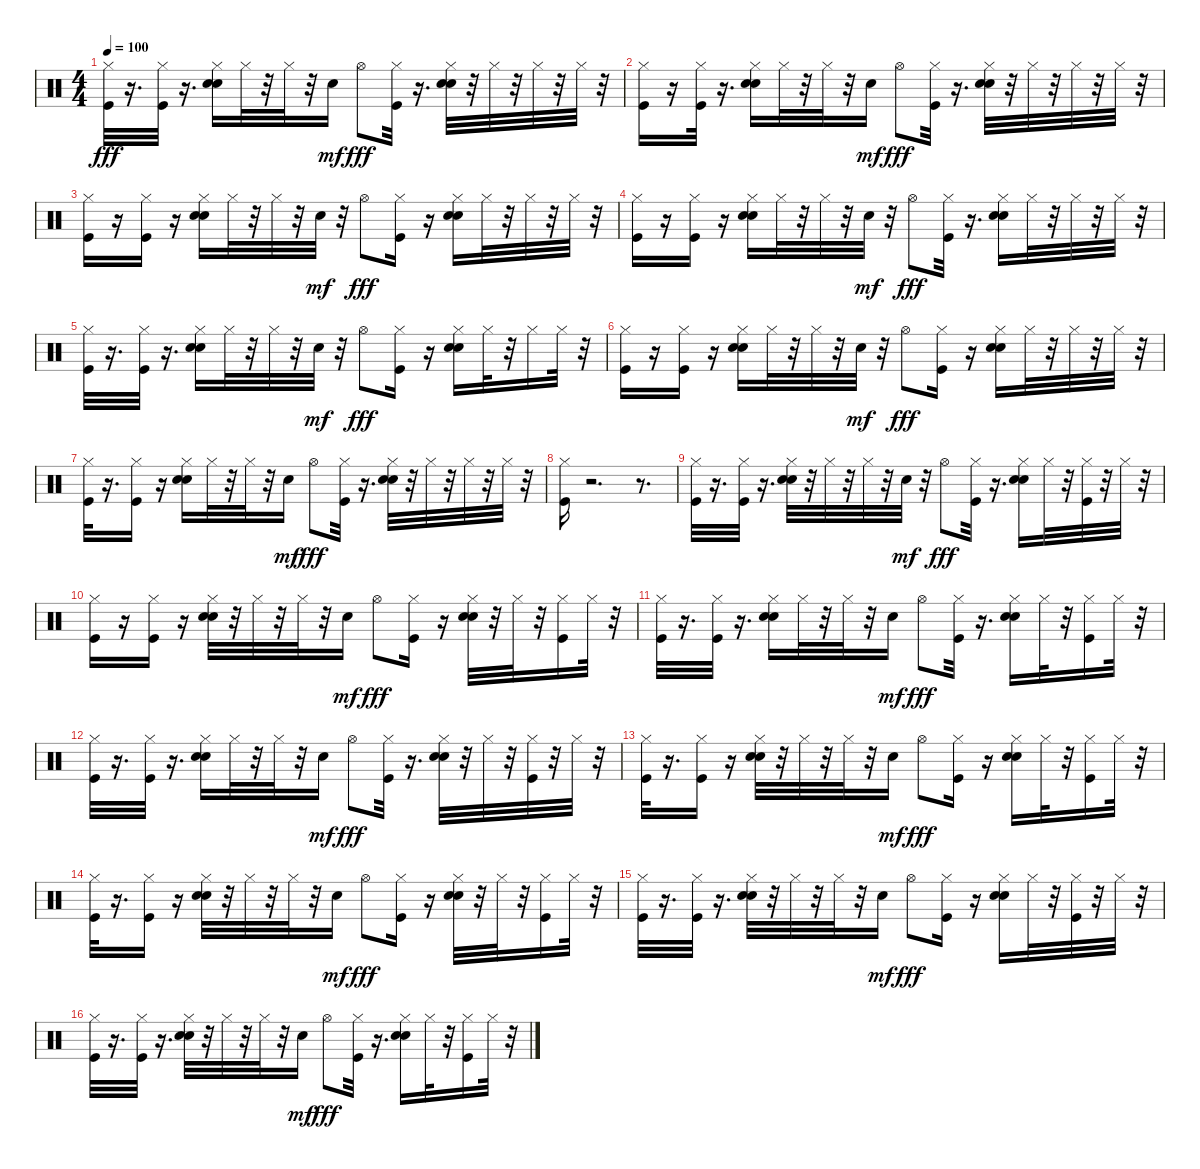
\track "" {instrument percussion}
\staff {score}
\articulation defaults
\ts (4 4)
\tempo 100
\clef neutral
\ks c
("Hi-Hat (closed)" "Kick (hit)").32{dy fff} r.16{d} ("Hi-Hat (closed)" "Kick (hit)").32 r.16{d} ("Hi-Hat (closed)" "Snare (hit) 2" "Hand Clap (hit)").16 "Hi-Hat (closed)".32 r.32 "Hi-Hat (closed)".32 r.32 "Electric Snare (hit)".16{dy mf} "Hi-Hat (open)".8{dy fff} ("Hi-Hat (closed)" "Kick (hit)").32 r.16{d} ("Hi-Hat (closed)" "Hand Clap (hit)" "Snare (hit) 2").32 r.32 "Hi-Hat (closed)".32 r.32 "Hi-Hat (closed)".32 r.32 "Hi-Hat (closed)".32 r.32 |
("Hi-Hat (closed)" "Kick (hit)").16 r.16 ("Hi-Hat (closed)" "Kick (hit)").32 r.16{d} ("Hi-Hat (closed)" "Snare (hit) 2" "Hand Clap (hit)").16 "Hi-Hat (closed)".32 r.32 "Hi-Hat (closed)".32 r.32 "Electric Snare (hit)".16{dy mf} "Hi-Hat (open)".8{dy fff} ("Hi-Hat (closed)" "Kick (hit)").32 r.16{d} ("Hi-Hat (closed)" "Hand Clap (hit)" "Snare (hit) 2").32 r.32 "Hi-Hat (closed)".32 r.32 "Hi-Hat (closed)".32 r.32 "Hi-Hat (closed)".32 r.32 |
("Hi-Hat (closed)" "Kick (hit)").16 r.16 ("Hi-Hat (closed)" "Kick (hit)").16 r.16 ("Hi-Hat (closed)" "Snare (hit) 2" "Hand Clap (hit)").16 "Hi-Hat (closed)".32 r.32 "Hi-Hat (closed)".32 r.32 "Electric Snare (hit)".32{dy mf} r.32 "Hi-Hat (open)".8{dy fff} ("Hi-Hat (closed)" "Kick (hit)").16 r.16 ("Hi-Hat (closed)" "Hand Clap (hit)" "Snare (hit) 2").16 "Hi-Hat (closed)".32 r.32 "Hi-Hat (closed)".32 r.32 "Hi-Hat (closed)".32 r.32 |
("Hi-Hat (closed)" "Kick (hit)").16 r.16 ("Hi-Hat (closed)" "Kick (hit)").16 r.16 ("Hi-Hat (closed)" "Snare (hit) 2" "Hand Clap (hit)").16 "Hi-Hat (closed)".32 r.32 "Hi-Hat (closed)".32 r.32 "Electric Snare (hit)".32{dy mf} r.32 "Hi-Hat (open)".8{dy fff} ("Hi-Hat (closed)" "Kick (hit)").32 r.16{d} ("Hi-Hat (closed)" "Hand Clap (hit)" "Snare (hit) 2").16 "Hi-Hat (closed)".32 r.32 "Hi-Hat (closed)".32 r.32 "Hi-Hat (closed)".32 r.32 |
("Hi-Hat (closed)" "Kick (hit)").32 r.16{d} ("Hi-Hat (closed)" "Kick (hit)").32 r.16{d} ("Hi-Hat (closed)" "Hand Clap (hit)" "Snare (hit) 2").16 "Hi-Hat (closed)".32 r.32 "Hi-Hat (closed)".32 r.32 "Electric Snare (hit)".32{dy mf} r.32 "Hi-Hat (open)".8{dy fff} ("Hi-Hat (closed)" "Kick (hit)").16 r.16 ("Hi-Hat (closed)" "Snare (hit) 2" "Hand Clap (hit)").16 "Hi-Hat (closed)".32 r.32 "Hi-Hat (closed)".16 "Hi-Hat (closed)".32 r.32 |
("Hi-Hat (closed)" "Kick (hit)").16 r.16 ("Hi-Hat (closed)" "Kick (hit)").16 r.16 ("Hi-Hat (closed)" "Snare (hit) 2" "Hand Clap (hit)").16 "Hi-Hat (closed)".32 r.32 "Hi-Hat (closed)".32 r.32 "Electric Snare (hit)".32{dy mf} r.32 "Hi-Hat (open)".8{dy fff} ("Hi-Hat (closed)" "Kick (hit)").16 r.16 ("Hi-Hat (closed)" "Hand Clap (hit)" "Snare (hit) 2").16 "Hi-Hat (closed)".32 r.32 "Hi-Hat (closed)".32 r.32 "Hi-Hat (closed)".32 r.32 |
("Hi-Hat (closed)" "Kick (hit)").32 r.16{d} ("Hi-Hat (closed)" "Kick (hit)").16 r.16 ("Hi-Hat (closed)" "Hand Clap (hit)" "Snare (hit) 2").16 "Hi-Hat (closed)".32 r.32 "Hi-Hat (closed)".32 r.32 "Electric Snare (hit)".16{dy mf} "Hi-Hat (open)".8{dy fff} ("Hi-Hat (closed)" "Kick (hit)").32 r.16{d} ("Hi-Hat (closed)" "Snare (hit) 2" "Hand Clap (hit)").32 r.32 "Hi-Hat (closed)".32 r.32 "Hi-Hat (closed)".32 r.32 "Hi-Hat (closed)".32 r.32 |
("Hi-Hat (closed)" "Kick (hit)").16 r.2{d} r.8{d} |
("Hi-Hat (closed)" "Kick (hit)").32 r.16{d} ("Hi-Hat (closed)" "Kick (hit)").32 r.16{d} ("Hi-Hat (closed)" "Hand Clap (hit)" "Snare (hit) 2").32 r.32 "Hi-Hat (closed)".32 r.32 "Hi-Hat (closed)".32 r.32 "Electric Snare (hit)".32{dy mf} r.32 "Hi-Hat (open)".8{dy fff} ("Hi-Hat (closed)" "Kick (hit)").32 r.16{d} ("Hi-Hat (closed)" "Hand Clap (hit)" "Snare (hit) 2").16 "Hi-Hat (closed)".32 r.32 ("Hi-Hat (closed)" "Kick (hit)").32 r.32 "Hi-Hat (closed)".32 r.32 |
("Hi-Hat (closed)" "Kick (hit)").16 r.16 ("Hi-Hat (closed)" "Kick (hit)").16 r.16 ("Hi-Hat (closed)" "Snare (hit) 2" "Hand Clap (hit)").32 r.32 "Hi-Hat (closed)".32 r.32 "Hi-Hat (closed)".32 r.32 "Electric Snare (hit)".16{dy mf} "Hi-Hat (open)".8{dy fff} ("Hi-Hat (closed)" "Kick (hit)").16 r.16 ("Hi-Hat (closed)" "Hand Clap (hit)" "Snare (hit) 2").32 r.32 "Hi-Hat (closed)".32 r.32 ("Hi-Hat (closed)" "Kick (hit)").16 "Hi-Hat (closed)".32 r.32 |
("Hi-Hat (closed)" "Kick (hit)").32 r.16{d} ("Hi-Hat (closed)" "Kick (hit)").32 r.16{d} ("Hi-Hat (closed)" "Hand Clap (hit)" "Snare (hit) 2").16 "Hi-Hat (closed)".32 r.32 "Hi-Hat (closed)".32 r.32 "Electric Snare (hit)".16{dy mf} "Hi-Hat (open)".8{dy fff} ("Hi-Hat (closed)" "Kick (hit)").32 r.16{d} ("Hi-Hat (closed)" "Hand Clap (hit)" "Snare (hit) 2").16 "Hi-Hat (closed)".32 r.32 ("Hi-Hat (closed)" "Kick (hit)").16 "Hi-Hat (closed)".32 r.32 |
("Hi-Hat (closed)" "Kick (hit)").32 r.16{d} ("Hi-Hat (closed)" "Kick (hit)").32 r.16{d} ("Hi-Hat (closed)" "Hand Clap (hit)" "Snare (hit) 2").16 "Hi-Hat (closed)".32 r.32 "Hi-Hat (closed)".32 r.32 "Electric Snare (hit)".16{dy mf} "Hi-Hat (open)".8{dy fff} ("Hi-Hat (closed)" "Kick (hit)").32 r.16{d} ("Hi-Hat (closed)" "Hand Clap (hit)" "Snare (hit) 2").32 r.32 "Hi-Hat (closed)".32 r.32 ("Hi-Hat (closed)" "Kick (hit)").32 r.32 "Hi-Hat (closed)".32 r.32 |
("Hi-Hat (closed)" "Kick (hit)").32 r.16{d} ("Hi-Hat (closed)" "Kick (hit)").16 r.16 ("Hi-Hat (closed)" "Hand Clap (hit)" "Snare (hit) 2").32 r.32 "Hi-Hat (closed)".32 r.32 "Hi-Hat (closed)".32 r.32 "Electric Snare (hit)".16{dy mf} "Hi-Hat (open)".8{dy fff} ("Hi-Hat (closed)" "Kick (hit)").16 r.16 ("Hi-Hat (closed)" "Hand Clap (hit)" "Snare (hit) 2").16 "Hi-Hat (closed)".32 r.32 ("Hi-Hat (closed)" "Kick (hit)").16 "Hi-Hat (closed)".32 r.32 |
("Hi-Hat (closed)" "Kick (hit)").32 r.16{d} ("Hi-Hat (closed)" "Kick (hit)").16 r.16 ("Hi-Hat (closed)" "Snare (hit) 2" "Hand Clap (hit)").32 r.32 "Hi-Hat (closed)".32 r.32 "Hi-Hat (closed)".32 r.32 "Electric Snare (hit)".16{dy mf} "Hi-Hat (open)".8{dy fff} ("Hi-Hat (closed)" "Kick (hit)").16 r.16 ("Hi-Hat (closed)" "Hand Clap (hit)" "Snare (hit) 2").32 r.32 "Hi-Hat (closed)".32 r.32 ("Hi-Hat (closed)" "Kick (hit)").16 "Hi-Hat (closed)".32 r.32 |
("Hi-Hat (closed)" "Kick (hit)").32 r.16{d} ("Hi-Hat (closed)" "Kick (hit)").32 r.16{d} ("Hi-Hat (closed)" "Hand Clap (hit)" "Snare (hit) 2").32 r.32 "Hi-Hat (closed)".32 r.32 "Hi-Hat (closed)".32 r.32 "Electric Snare (hit)".16{dy mf} "Hi-Hat (open)".8{dy fff} ("Hi-Hat (closed)" "Kick (hit)").16 r.16 ("Hi-Hat (closed)" "Snare (hit) 2" "Hand Clap (hit)").16 "Hi-Hat (closed)".32 r.32 ("Hi-Hat (closed)" "Kick (hit)").32 r.32 "Hi-Hat (closed)".32 r.32 |
("Hi-Hat (closed)" "Kick (hit)").32 r.16{d} ("Hi-Hat (closed)" "Kick (hit)").32 r.16{d} ("Hi-Hat (closed)" "Snare (hit) 2" "Hand Clap (hit)").32 r.32 "Hi-Hat (closed)".32 r.32 "Hi-Hat (closed)".32 r.32 "Electric Snare (hit)".16{dy mf} "Hi-Hat (open)".8{dy fff} ("Hi-Hat (closed)" "Kick (hit)").32 r.16{d} ("Hi-Hat (closed)" "Hand Clap (hit)" "Snare (hit) 2").16 "Hi-Hat (closed)".32 r.32 ("Hi-Hat (closed)" "Kick (hit)").16 "Hi-Hat (closed)".32 r.32
